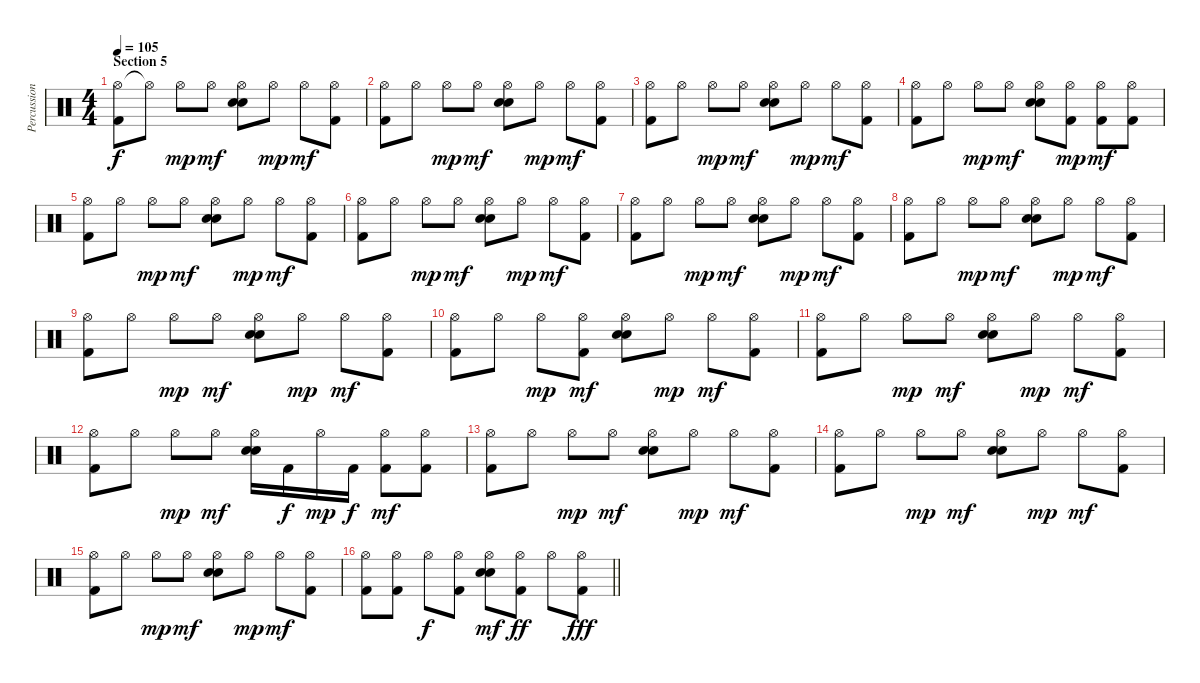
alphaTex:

\track ("Percussion" "Percussion") {instrument percussion}
\staff {score}
\articulation defaults
\ts (4 4)
\section ("" "Section 5")
\tempo 105
\clef neutral
\ks c
("Hi-Hat (open)" "Kick (hit) 2").8{dy f volume 13} "Hi-Hat (open)"{t}.8 "Hi-Hat (open)".8{dy mp} "Hi-Hat (open)".8{dy mf} ("Hi-Hat (open)" "Electric Snare (hit)" "Snare (hit) 2").8 "Hi-Hat (open)".8{dy mp} "Hi-Hat (open)".8{dy mf} ("Hi-Hat (open)" "Kick (hit) 2").8 |
("Hi-Hat (open)" "Kick (hit) 2").8 "Hi-Hat (open)".8 "Hi-Hat (open)".8{dy mp} "Hi-Hat (open)".8{dy mf} ("Hi-Hat (open)" "Electric Snare (hit)" "Snare (hit) 2").8 "Hi-Hat (open)".8{dy mp} "Hi-Hat (open)".8{dy mf} ("Hi-Hat (open)" "Kick (hit) 2").8 |
("Hi-Hat (open)" "Kick (hit) 2").8 "Hi-Hat (open)".8 "Hi-Hat (open)".8{dy mp} "Hi-Hat (open)".8{dy mf} ("Hi-Hat (open)" "Electric Snare (hit)" "Snare (hit) 2").8 "Hi-Hat (open)".8{dy mp} "Hi-Hat (open)".8{dy mf} ("Hi-Hat (open)" "Kick (hit) 2").8 |
("Hi-Hat (open)" "Kick (hit) 2").8 "Hi-Hat (open)".8 "Hi-Hat (open)".8{dy mp} "Hi-Hat (open)".8{dy mf} ("Hi-Hat (open)" "Electric Snare (hit)" "Snare (hit) 2").8 ("Hi-Hat (open)" "Kick (hit) 2").8{dy mp} ("Hi-Hat (open)" "Kick (hit) 2").8{dy mf} ("Hi-Hat (open)" "Kick (hit) 2").8 |
("Hi-Hat (open)" "Kick (hit) 2").8 "Hi-Hat (open)".8 "Hi-Hat (open)".8{dy mp} "Hi-Hat (open)".8{dy mf} ("Hi-Hat (open)" "Electric Snare (hit)" "Snare (hit) 2").8 "Hi-Hat (open)".8{dy mp} "Hi-Hat (open)".8{dy mf} ("Hi-Hat (open)" "Kick (hit) 2").8 |
("Hi-Hat (open)" "Kick (hit) 2").8 "Hi-Hat (open)".8 "Hi-Hat (open)".8{dy mp} "Hi-Hat (open)".8{dy mf} ("Hi-Hat (open)" "Electric Snare (hit)" "Snare (hit) 2").8 "Hi-Hat (open)".8{dy mp} "Hi-Hat (open)".8{dy mf} ("Hi-Hat (open)" "Kick (hit) 2").8 |
("Hi-Hat (open)" "Kick (hit) 2").8 "Hi-Hat (open)".8 "Hi-Hat (open)".8{dy mp} "Hi-Hat (open)".8{dy mf} ("Hi-Hat (open)" "Electric Snare (hit)" "Snare (hit) 2").8 "Hi-Hat (open)".8{dy mp} "Hi-Hat (open)".8{dy mf} ("Hi-Hat (open)" "Kick (hit) 2").8 |
("Hi-Hat (open)" "Kick (hit) 2").8 "Hi-Hat (open)".8 "Hi-Hat (open)".8{dy mp} "Hi-Hat (open)".8{dy mf} ("Hi-Hat (open)" "Electric Snare (hit)" "Snare (hit) 2").8 "Hi-Hat (open)".8{dy mp} "Hi-Hat (open)".8{dy mf} ("Hi-Hat (open)" "Kick (hit) 2").8 |
("Hi-Hat (open)" "Kick (hit) 2").8 "Hi-Hat (open)".8 "Hi-Hat (open)".8{dy mp} "Hi-Hat (open)".8{dy mf} ("Hi-Hat (open)" "Electric Snare (hit)" "Snare (hit) 2").8 "Hi-Hat (open)".8{dy mp} "Hi-Hat (open)".8{dy mf} ("Hi-Hat (open)" "Kick (hit) 2").8 |
("Hi-Hat (open)" "Kick (hit) 2").8 "Hi-Hat (open)".8 "Hi-Hat (open)".8{dy mp} ("Hi-Hat (open)" "Kick (hit) 2").8{dy mf} ("Hi-Hat (open)" "Electric Snare (hit)" "Snare (hit) 2").8 "Hi-Hat (open)".8{dy mp} "Hi-Hat (open)".8{dy mf} ("Hi-Hat (open)" "Kick (hit) 2").8 |
("Hi-Hat (open)" "Kick (hit) 2").8 "Hi-Hat (open)".8 "Hi-Hat (open)".8{dy mp} "Hi-Hat (open)".8{dy mf} ("Hi-Hat (open)" "Electric Snare (hit)" "Snare (hit) 2").8 "Hi-Hat (open)".8{dy mp} "Hi-Hat (open)".8{dy mf} ("Hi-Hat (open)" "Kick (hit) 2").8 |
("Hi-Hat (open)" "Kick (hit) 2").8 "Hi-Hat (open)".8 "Hi-Hat (open)".8{dy mp} "Hi-Hat (open)".8{dy mf} ("Hi-Hat (open)" "Electric Snare (hit)" "Snare (hit) 2").16 "Kick (hit) 2".16{dy f} "Hi-Hat (open)".16{dy mp} "Kick (hit) 2".16{dy f} ("Hi-Hat (open)" "Kick (hit) 2").8{dy mf} ("Hi-Hat (open)" "Kick (hit) 2").8 |
("Hi-Hat (open)" "Kick (hit) 2").8 "Hi-Hat (open)".8 "Hi-Hat (open)".8{dy mp} "Hi-Hat (open)".8{dy mf} ("Hi-Hat (open)" "Electric Snare (hit)" "Snare (hit) 2").8 "Hi-Hat (open)".8{dy mp} "Hi-Hat (open)".8{dy mf} ("Hi-Hat (open)" "Kick (hit) 2").8 |
("Hi-Hat (open)" "Kick (hit) 2").8 "Hi-Hat (open)".8 "Hi-Hat (open)".8{dy mp} "Hi-Hat (open)".8{dy mf} ("Hi-Hat (open)" "Electric Snare (hit)" "Snare (hit) 2").8 "Hi-Hat (open)".8{dy mp} "Hi-Hat (open)".8{dy mf} ("Hi-Hat (open)" "Kick (hit) 2").8 |
("Hi-Hat (open)" "Kick (hit) 2").8 "Hi-Hat (open)".8 "Hi-Hat (open)".8{dy mp} "Hi-Hat (open)".8{dy mf} ("Hi-Hat (open)" "Electric Snare (hit)" "Snare (hit) 2").8 "Hi-Hat (open)".8{dy mp} "Hi-Hat (open)".8{dy mf} ("Hi-Hat (open)" "Kick (hit) 2").8 |
\barLineRight lightlight
("Hi-Hat (open)" "Kick (hit) 2").8{volume 16} ("Hi-Hat (open)" "Kick (hit) 2").8 "Hi-Hat (open)".8{dy f} ("Hi-Hat (open)" "Kick (hit) 2").8 ("Hi-Hat (open)" "Electric Snare (hit)" "Snare (hit) 2").8{dy mf} ("Hi-Hat (open)" "Kick (hit) 2").8{dy ff} "Hi-Hat (open)".8 ("Hi-Hat (open)" "Kick (hit) 2").8{dy fff}
